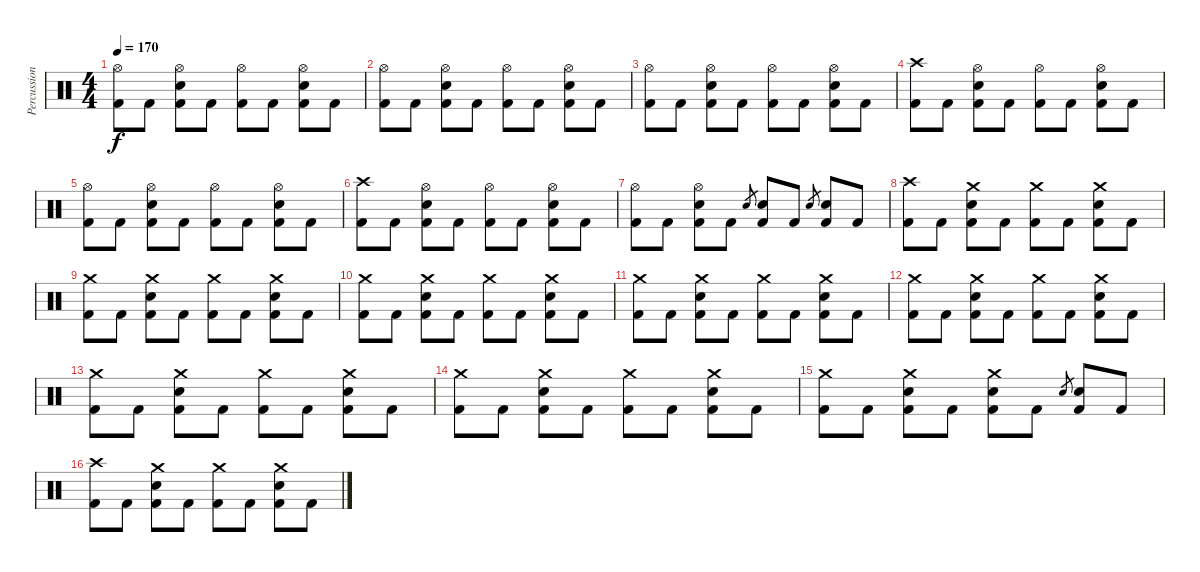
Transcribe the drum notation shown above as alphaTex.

\track ("Percussion" "Percussion") {instrument percussion}
\staff {score}
\articulation defaults
\ts (4 4)
\tempo 170
\clef neutral
\ks c
("Hi-Hat (open)" "Kick (hit) 2").8{dy f} "Kick (hit) 2".8 ("Hi-Hat (open)" "Snare (hit) 2" "Kick (hit) 2").8 "Kick (hit) 2".8 ("Hi-Hat (open)" "Kick (hit) 2").8 "Kick (hit) 2".8 ("Hi-Hat (open)" "Snare (hit) 2" "Kick (hit) 2").8 "Kick (hit) 2".8 |
("Hi-Hat (open)" "Kick (hit) 2").8 "Kick (hit) 2".8 ("Hi-Hat (open)" "Snare (hit) 2" "Kick (hit) 2").8 "Kick (hit) 2".8 ("Hi-Hat (open)" "Kick (hit) 2").8 "Kick (hit) 2".8 ("Hi-Hat (open)" "Snare (hit) 2" "Kick (hit) 2").8 "Kick (hit) 2".8 |
("Hi-Hat (open)" "Kick (hit) 2").8 "Kick (hit) 2".8 ("Hi-Hat (open)" "Snare (hit) 2" "Kick (hit) 2").8 "Kick (hit) 2".8 ("Hi-Hat (open)" "Kick (hit) 2").8 "Kick (hit) 2".8 ("Hi-Hat (open)" "Snare (hit) 2" "Kick (hit) 2").8 "Kick (hit) 2".8 |
("Crash high (hit)" "Kick (hit) 2").8 "Kick (hit) 2".8 ("Hi-Hat (open)" "Snare (hit) 2" "Kick (hit) 2").8 "Kick (hit) 2".8 ("Hi-Hat (open)" "Kick (hit) 2").8 "Kick (hit) 2".8 ("Hi-Hat (open)" "Snare (hit) 2" "Kick (hit) 2").8 "Kick (hit) 2".8 |
("Hi-Hat (open)" "Kick (hit) 2").8 "Kick (hit) 2".8 ("Hi-Hat (open)" "Snare (hit) 2" "Kick (hit) 2").8 "Kick (hit) 2".8 ("Hi-Hat (open)" "Kick (hit) 2").8 "Kick (hit) 2".8 ("Hi-Hat (open)" "Snare (hit) 2" "Kick (hit) 2").8 "Kick (hit) 2".8 |
("Crash high (hit)" "Kick (hit) 2").8 "Kick (hit) 2".8 ("Hi-Hat (open)" "Snare (hit) 2" "Kick (hit) 2").8 "Kick (hit) 2".8 ("Hi-Hat (open)" "Kick (hit) 2").8 "Kick (hit) 2".8 ("Hi-Hat (open)" "Snare (hit) 2" "Kick (hit) 2").8 "Kick (hit) 2".8 |
("Hi-Hat (open)" "Kick (hit) 2").8 "Kick (hit) 2".8 ("Hi-Hat (open)" "Snare (hit) 2" "Kick (hit) 2").8 "Kick (hit) 2".8 "Snare (hit) 2".8{gr} ("Snare (hit) 2" "Kick (hit) 2").8 "Kick (hit) 2".8 "Snare (hit) 2".8{gr} ("Snare (hit) 2" "Kick (hit) 2").8 "Kick (hit) 2".8 |
("Crash high (hit)" "Kick (hit) 2").8 "Kick (hit) 2".8 ("Crash medium (hit)" "Snare (hit) 2" "Kick (hit) 2").8 "Kick (hit) 2".8 ("Crash medium (hit)" "Kick (hit) 2").8 "Kick (hit) 2".8 ("Crash medium (hit)" "Snare (hit) 2" "Kick (hit) 2").8 "Kick (hit) 2".8 |
("Crash medium (hit)" "Kick (hit) 2").8 "Kick (hit) 2".8 ("Crash medium (hit)" "Snare (hit) 2" "Kick (hit) 2").8 "Kick (hit) 2".8 ("Crash medium (hit)" "Kick (hit) 2").8 "Kick (hit) 2".8 ("Crash medium (hit)" "Snare (hit) 2" "Kick (hit) 2").8 "Kick (hit) 2".8 |
("Crash medium (hit)" "Kick (hit) 2").8 "Kick (hit) 2".8 ("Crash medium (hit)" "Snare (hit) 2" "Kick (hit) 2").8 "Kick (hit) 2".8 ("Crash medium (hit)" "Kick (hit) 2").8 "Kick (hit) 2".8 ("Crash medium (hit)" "Snare (hit) 2" "Kick (hit) 2").8 "Kick (hit) 2".8 |
("Crash medium (hit)" "Kick (hit) 2").8 "Kick (hit) 2".8 ("Crash medium (hit)" "Snare (hit) 2" "Kick (hit) 2").8 "Kick (hit) 2".8 ("Crash medium (hit)" "Kick (hit) 2").8 "Kick (hit) 2".8 ("Crash medium (hit)" "Snare (hit) 2" "Kick (hit) 2").8 "Kick (hit) 2".8 |
("Crash medium (hit)" "Kick (hit) 2").8 "Kick (hit) 2".8 ("Crash medium (hit)" "Snare (hit) 2" "Kick (hit) 2").8 "Kick (hit) 2".8 ("Crash medium (hit)" "Kick (hit) 2").8 "Kick (hit) 2".8 ("Crash medium (hit)" "Snare (hit) 2" "Kick (hit) 2").8 "Kick (hit) 2".8 |
("Crash medium (hit)" "Kick (hit) 2").8 "Kick (hit) 2".8 ("Crash medium (hit)" "Snare (hit) 2" "Kick (hit) 2").8 "Kick (hit) 2".8 ("Crash medium (hit)" "Kick (hit) 2").8 "Kick (hit) 2".8 ("Crash medium (hit)" "Snare (hit) 2" "Kick (hit) 2").8 "Kick (hit) 2".8 |
("Crash medium (hit)" "Kick (hit) 2").8 "Kick (hit) 2".8 ("Crash medium (hit)" "Snare (hit) 2" "Kick (hit) 2").8 "Kick (hit) 2".8 ("Crash medium (hit)" "Kick (hit) 2").8 "Kick (hit) 2".8 ("Crash medium (hit)" "Snare (hit) 2" "Kick (hit) 2").8 "Kick (hit) 2".8 |
("Crash medium (hit)" "Kick (hit) 2").8 "Kick (hit) 2".8 ("Crash medium (hit)" "Snare (hit) 2" "Kick (hit) 2").8 "Kick (hit) 2".8 ("Crash medium (hit)" "Snare (hit) 2" "Kick (hit) 2").8 "Kick (hit) 2".8 "Snare (hit) 2".8{gr} ("Snare (hit) 2" "Kick (hit) 2").8 "Kick (hit) 2".8 |
("Crash high (hit)" "Kick (hit) 2").8 "Kick (hit) 2".8 ("Crash medium (hit)" "Snare (hit) 2" "Kick (hit) 2").8 "Kick (hit) 2".8 ("Crash medium (hit)" "Kick (hit) 2").8 "Kick (hit) 2".8 ("Crash medium (hit)" "Snare (hit) 2" "Kick (hit) 2").8 "Kick (hit) 2".8
